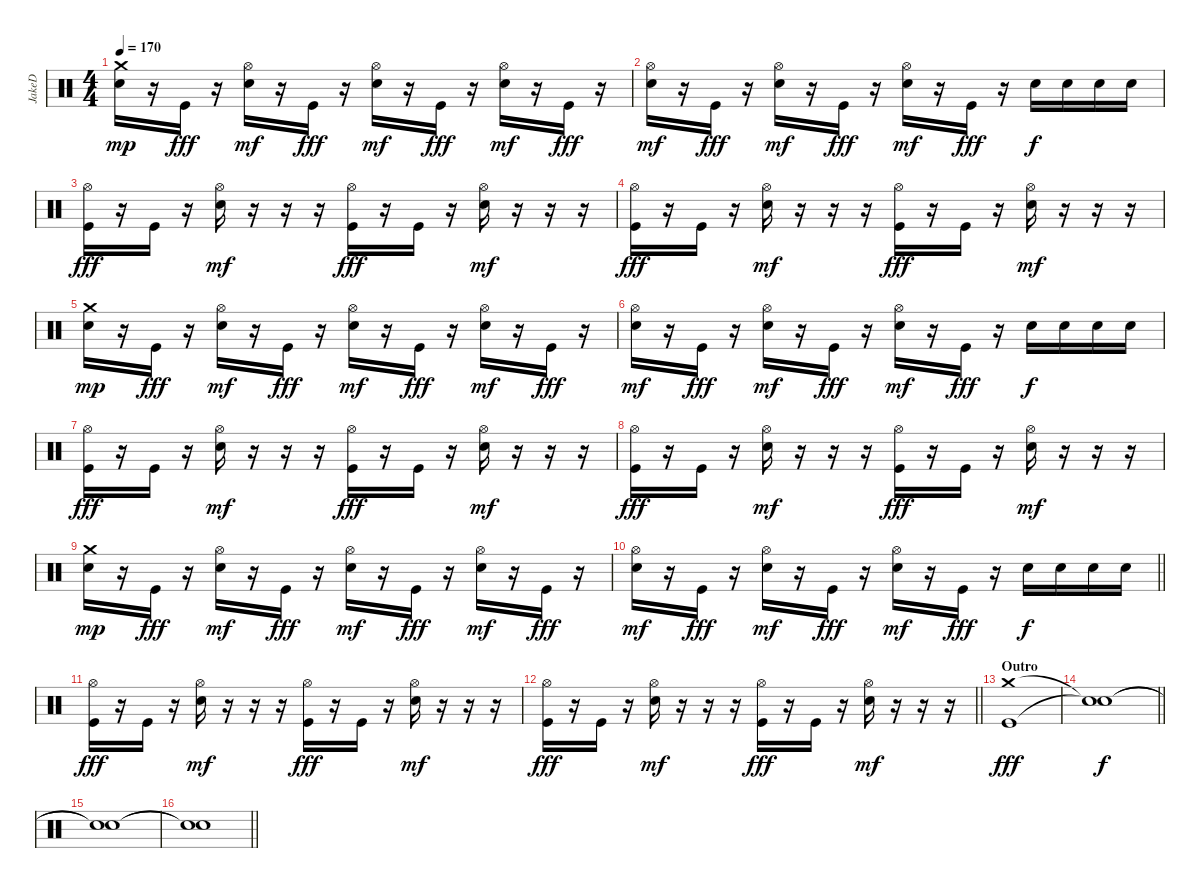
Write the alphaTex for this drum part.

\track ("JakeD" "JakeD") {instrument percussion}
\staff {score}
\articulation defaults
\ts (4 4)
\tempo 170
\clef neutral
\ks c
("Crash medium (hit)" "Electric Snare (hit)").16{dy mp} r.16 "Kick (hit)".16{dy fff} r.16 ("Hi-Hat (open)" "Electric Snare (hit)").16{dy mf} r.16 "Kick (hit)".16{dy fff} r.16 ("Hi-Hat (open)" "Electric Snare (hit)").16{dy mf} r.16 "Kick (hit)".16{dy fff} r.16 ("Hi-Hat (open)" "Electric Snare (hit)").16{dy mf} r.16 "Kick (hit)".16{dy fff} r.16 |
("Hi-Hat (open)" "Electric Snare (hit)").16{dy mf} r.16 "Kick (hit)".16{dy fff} r.16 ("Hi-Hat (open)" "Electric Snare (hit)").16{dy mf} r.16 "Kick (hit)".16{dy fff} r.16 ("Hi-Hat (open)" "Electric Snare (hit)").16{dy mf} r.16 "Kick (hit)".16{dy fff} r.16 "Electric Snare (hit)".16{dy f} "Electric Snare (hit)".16 "Electric Snare (hit)".16 "Electric Snare (hit)".16 |
("Hi-Hat (open)" "Kick (hit)").16{dy fff} r.16 "Kick (hit)".16 r.16 ("Hi-Hat (open)" "Electric Snare (hit)").16{dy mf} r.16 r.16 r.16 ("Hi-Hat (open)" "Kick (hit)").16{dy fff} r.16 "Kick (hit)".16 r.16 ("Hi-Hat (open)" "Electric Snare (hit)").16{dy mf} r.16 r.16 r.16 |
("Hi-Hat (open)" "Kick (hit)").16{dy fff} r.16 "Kick (hit)".16 r.16 ("Hi-Hat (open)" "Electric Snare (hit)").16{dy mf} r.16 r.16 r.16 ("Hi-Hat (open)" "Kick (hit)").16{dy fff} r.16 "Kick (hit)".16 r.16 ("Hi-Hat (open)" "Electric Snare (hit)").16{dy mf} r.16 r.16 r.16 |
("Crash medium (hit)" "Electric Snare (hit)").16{dy mp} r.16 "Kick (hit)".16{dy fff} r.16 ("Hi-Hat (open)" "Electric Snare (hit)").16{dy mf} r.16 "Kick (hit)".16{dy fff} r.16 ("Hi-Hat (open)" "Electric Snare (hit)").16{dy mf} r.16 "Kick (hit)".16{dy fff} r.16 ("Hi-Hat (open)" "Electric Snare (hit)").16{dy mf} r.16 "Kick (hit)".16{dy fff} r.16 |
("Hi-Hat (open)" "Electric Snare (hit)").16{dy mf} r.16 "Kick (hit)".16{dy fff} r.16 ("Hi-Hat (open)" "Electric Snare (hit)").16{dy mf} r.16 "Kick (hit)".16{dy fff} r.16 ("Hi-Hat (open)" "Electric Snare (hit)").16{dy mf} r.16 "Kick (hit)".16{dy fff} r.16 "Electric Snare (hit)".16{dy f} "Electric Snare (hit)".16 "Electric Snare (hit)".16 "Electric Snare (hit)".16 |
("Hi-Hat (open)" "Kick (hit)").16{dy fff} r.16 "Kick (hit)".16 r.16 ("Hi-Hat (open)" "Electric Snare (hit)").16{dy mf} r.16 r.16 r.16 ("Hi-Hat (open)" "Kick (hit)").16{dy fff} r.16 "Kick (hit)".16 r.16 ("Hi-Hat (open)" "Electric Snare (hit)").16{dy mf} r.16 r.16 r.16 |
("Hi-Hat (open)" "Kick (hit)").16{dy fff} r.16 "Kick (hit)".16 r.16 ("Hi-Hat (open)" "Electric Snare (hit)").16{dy mf} r.16 r.16 r.16 ("Hi-Hat (open)" "Kick (hit)").16{dy fff} r.16 "Kick (hit)".16 r.16 ("Hi-Hat (open)" "Electric Snare (hit)").16{dy mf} r.16 r.16 r.16 |
("Crash medium (hit)" "Electric Snare (hit)").16{dy mp} r.16 "Kick (hit)".16{dy fff} r.16 ("Hi-Hat (open)" "Electric Snare (hit)").16{dy mf} r.16 "Kick (hit)".16{dy fff} r.16 ("Hi-Hat (open)" "Electric Snare (hit)").16{dy mf} r.16 "Kick (hit)".16{dy fff} r.16 ("Hi-Hat (open)" "Electric Snare (hit)").16{dy mf} r.16 "Kick (hit)".16{dy fff} r.16 |
\barLineRight lightlight
("Hi-Hat (open)" "Electric Snare (hit)").16{dy mf} r.16 "Kick (hit)".16{dy fff} r.16 ("Hi-Hat (open)" "Electric Snare (hit)").16{dy mf} r.16 "Kick (hit)".16{dy fff} r.16 ("Hi-Hat (open)" "Electric Snare (hit)").16{dy mf} r.16 "Kick (hit)".16{dy fff} r.16 "Electric Snare (hit)".16{dy f} "Electric Snare (hit)".16 "Electric Snare (hit)".16 "Electric Snare (hit)".16 |
\section ("" "")
("Hi-Hat (open)" "Kick (hit)").16{dy fff} r.16 "Kick (hit)".16 r.16 ("Hi-Hat (open)" "Electric Snare (hit)").16{dy mf} r.16 r.16 r.16 ("Hi-Hat (open)" "Kick (hit)").16{dy fff} r.16 "Kick (hit)".16 r.16 ("Hi-Hat (open)" "Electric Snare (hit)").16{dy mf} r.16 r.16 r.16 |
\barLineRight lightlight
("Hi-Hat (open)" "Kick (hit)").16{dy fff} r.16 "Kick (hit)".16 r.16 ("Hi-Hat (open)" "Electric Snare (hit)").16{dy mf} r.16 r.16 r.16 ("Hi-Hat (open)" "Kick (hit)").16{dy fff} r.16 "Kick (hit)".16 r.16 ("Hi-Hat (open)" "Electric Snare (hit)").16{dy mf} r.16 r.16 r.16 |
\section ("" "Outro")
("Crash medium (hit)" "Kick (hit)").1{dy fff} |
\barLineRight lightlight
("Snare (hit)"{t} "Snare (hit)"{t}).1{dy f} |
("Snare (hit)"{t} "Snare (hit)"{t}).1 |
\barLineRight lightlight
("Snare (hit)"{t} "Snare (hit)"{t}).1
